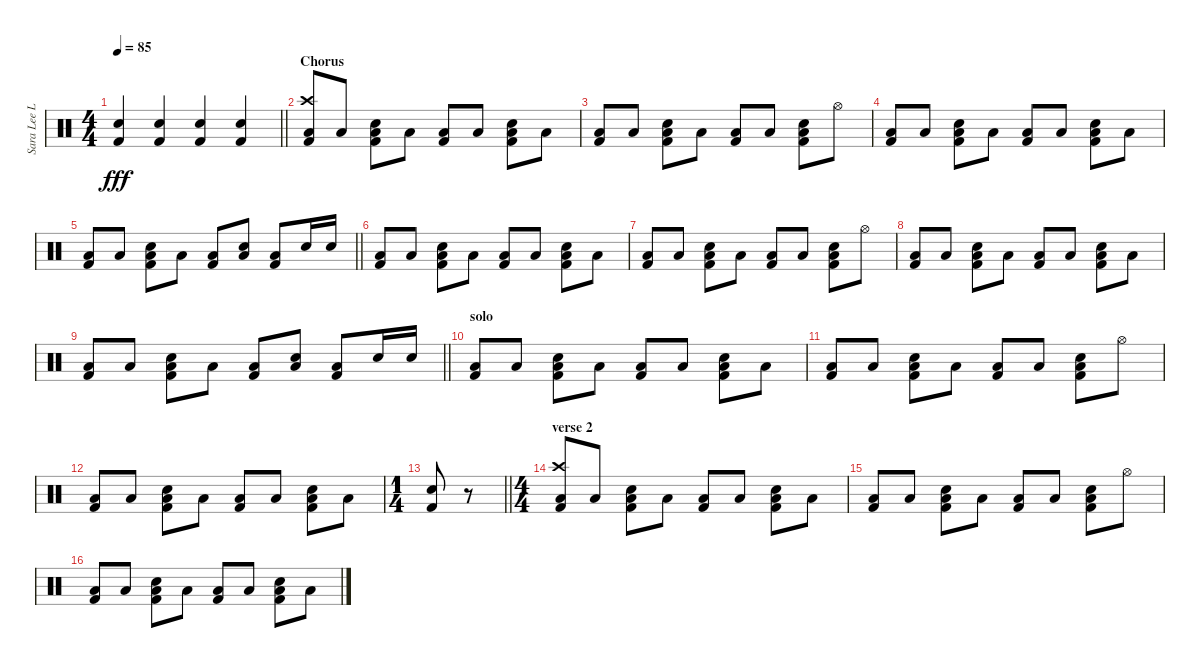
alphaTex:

\track ("Sara Lee Lucas" "Sara Lee L") {instrument percussion}
\staff {score}
\articulation defaults
\ts (4 4)
\tempo 85
\clef neutral
\barLineRight lightlight
\ks c
("Snare (hit) 2" "Kick (hit) 2").4{dy fff} ("Snare (hit) 2" "Kick (hit) 2").4 ("Snare (hit) 2" "Kick (hit) 2").4 ("Snare (hit) 2" "Kick (hit) 2").4 |
\section ("" "Chorus")
("Crash high (hit)" "Low Tom (hit)" "Kick (hit) 2").8 "Low Tom (hit)".8 ("Low Tom (hit)" "Snare (hit) 2" "Kick (hit) 2").8 "Low Tom (hit)".8 ("Low Tom (hit)" "Kick (hit) 2").8 "Low Tom (hit)".8 ("Low Tom (hit)" "Snare (hit) 2" "Kick (hit) 2").8 "Low Tom (hit)".8 |
("Low Tom (hit)" "Kick (hit) 2").8 "Low Tom (hit)".8 ("Low Tom (hit)" "Snare (hit) 2" "Kick (hit) 2").8 "Low Tom (hit)".8 ("Low Tom (hit)" "Kick (hit) 2").8 "Low Tom (hit)".8 ("Low Tom (hit)" "Snare (hit) 2" "Kick (hit) 2").8 "Hi-Hat (open)".8 |
("Low Tom (hit)" "Kick (hit) 2").8 "Low Tom (hit)".8 ("Low Tom (hit)" "Snare (hit) 2" "Kick (hit) 2").8 "Low Tom (hit)".8 ("Low Tom (hit)" "Kick (hit) 2").8 "Low Tom (hit)".8 ("Low Tom (hit)" "Snare (hit) 2" "Kick (hit) 2").8 "Low Tom (hit)".8 |
\barLineRight lightlight
("Low Tom (hit)" "Kick (hit) 2").8 "Low Tom (hit)".8 ("Low Tom (hit)" "Snare (hit) 2" "Kick (hit) 2").8 "Low Tom (hit)".8 ("Low Tom (hit)" "Kick (hit) 2").8 ("Low Tom (hit)" "Snare (hit) 2").8 ("Low Tom (hit)" "Kick (hit) 2").8 "Snare (hit) 2".16 "Snare (hit) 2".16 |
("Low Tom (hit)" "Kick (hit) 2").8 "Low Tom (hit)".8 ("Low Tom (hit)" "Snare (hit) 2" "Kick (hit) 2").8 "Low Tom (hit)".8 ("Low Tom (hit)" "Kick (hit) 2").8 "Low Tom (hit)".8 ("Low Tom (hit)" "Snare (hit) 2" "Kick (hit) 2").8 "Low Tom (hit)".8 |
("Low Tom (hit)" "Kick (hit) 2").8 "Low Tom (hit)".8 ("Low Tom (hit)" "Snare (hit) 2" "Kick (hit) 2").8 "Low Tom (hit)".8 ("Low Tom (hit)" "Kick (hit) 2").8 "Low Tom (hit)".8 ("Low Tom (hit)" "Snare (hit) 2" "Kick (hit) 2").8 "Hi-Hat (open)".8 |
("Low Tom (hit)" "Kick (hit) 2").8 "Low Tom (hit)".8 ("Low Tom (hit)" "Snare (hit) 2" "Kick (hit) 2").8 "Low Tom (hit)".8 ("Low Tom (hit)" "Kick (hit) 2").8 "Low Tom (hit)".8 ("Low Tom (hit)" "Snare (hit) 2" "Kick (hit) 2").8 "Low Tom (hit)".8 |
\barLineRight lightlight
("Low Tom (hit)" "Kick (hit) 2").8 "Low Tom (hit)".8 ("Low Tom (hit)" "Snare (hit) 2" "Kick (hit) 2").8 "Low Tom (hit)".8 ("Low Tom (hit)" "Kick (hit) 2").8 ("Low Tom (hit)" "Snare (hit) 2").8 ("Low Tom (hit)" "Kick (hit) 2").8 "Snare (hit) 2".16 "Snare (hit) 2".16 |
\section ("" "solo")
("Low Tom (hit)" "Kick (hit) 2").8 "Low Tom (hit)".8 ("Low Tom (hit)" "Snare (hit) 2" "Kick (hit) 2").8 "Low Tom (hit)".8 ("Low Tom (hit)" "Kick (hit) 2").8 "Low Tom (hit)".8 ("Low Tom (hit)" "Snare (hit) 2" "Kick (hit) 2").8 "Low Tom (hit)".8 |
("Low Tom (hit)" "Kick (hit) 2").8 "Low Tom (hit)".8 ("Low Tom (hit)" "Snare (hit) 2" "Kick (hit) 2").8 "Low Tom (hit)".8 ("Low Tom (hit)" "Kick (hit) 2").8 "Low Tom (hit)".8 ("Low Tom (hit)" "Snare (hit) 2" "Kick (hit) 2").8 "Hi-Hat (open)".8 |
("Low Tom (hit)" "Kick (hit) 2").8 "Low Tom (hit)".8 ("Low Tom (hit)" "Snare (hit) 2" "Kick (hit) 2").8 "Low Tom (hit)".8 ("Low Tom (hit)" "Kick (hit) 2").8 "Low Tom (hit)".8 ("Low Tom (hit)" "Snare (hit) 2" "Kick (hit) 2").8 "Low Tom (hit)".8 |
\ts (1 4)
\barLineRight lightlight
("Snare (hit) 2" "Kick (hit) 2").8 r.8 |
\ts (4 4)
\section ("" "verse 2")
("Crash high (hit)" "Low Tom (hit)" "Kick (hit) 2").8 "Low Tom (hit)".8 ("Low Tom (hit)" "Snare (hit) 2" "Kick (hit) 2").8 "Low Tom (hit)".8 ("Low Tom (hit)" "Kick (hit) 2").8 "Low Tom (hit)".8 ("Low Tom (hit)" "Snare (hit) 2" "Kick (hit) 2").8 "Low Tom (hit)".8 |
("Low Tom (hit)" "Kick (hit) 2").8 "Low Tom (hit)".8 ("Low Tom (hit)" "Snare (hit) 2" "Kick (hit) 2").8 "Low Tom (hit)".8 ("Low Tom (hit)" "Kick (hit) 2").8 "Low Tom (hit)".8 ("Low Tom (hit)" "Snare (hit) 2" "Kick (hit) 2").8 "Hi-Hat (open)".8 |
("Low Tom (hit)" "Kick (hit) 2").8 "Low Tom (hit)".8 ("Low Tom (hit)" "Snare (hit) 2" "Kick (hit) 2").8 "Low Tom (hit)".8 ("Low Tom (hit)" "Kick (hit) 2").8 "Low Tom (hit)".8 ("Low Tom (hit)" "Snare (hit) 2" "Kick (hit) 2").8 "Low Tom (hit)".8
